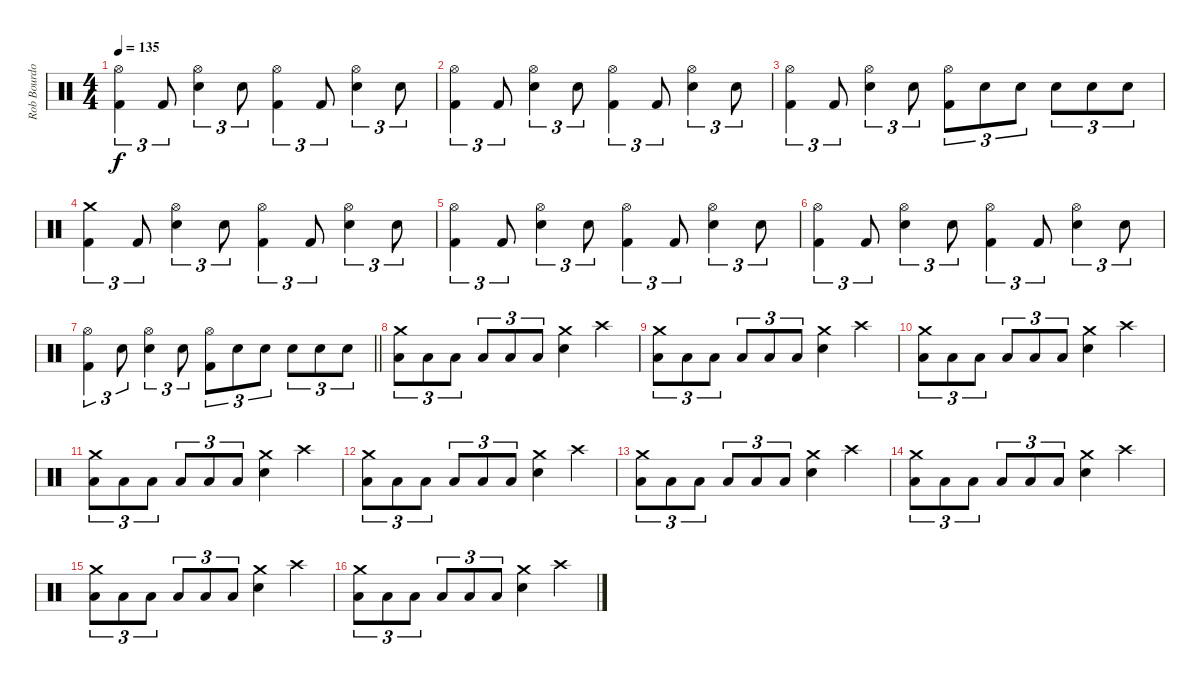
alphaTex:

\track ("Rob Bourdon [Drums]" "Rob Bourdo") {instrument percussion bank 5}
\staff {score}
\articulation defaults
\ts (4 4)
\tempo 135
\clef neutral
\ks c
("Hi-Hat (open)" "Kick (hit) 2").4{tu (3 2) dy f} "Kick (hit) 2".8{tu (3 2)} ("Hi-Hat (open)" "Electric Snare (hit)").4{tu (3 2)} "Electric Snare (hit)".8{tu (3 2)} ("Hi-Hat (open)" "Kick (hit) 2").4{tu (3 2)} "Kick (hit) 2".8{tu (3 2)} ("Hi-Hat (open)" "Electric Snare (hit)").4{tu (3 2)} "Electric Snare (hit)".8{tu (3 2)} |
("Hi-Hat (open)" "Kick (hit) 2").4{tu (3 2)} "Kick (hit) 2".8{tu (3 2)} ("Hi-Hat (open)" "Electric Snare (hit)").4{tu (3 2)} "Electric Snare (hit)".8{tu (3 2)} ("Hi-Hat (open)" "Kick (hit) 2").4{tu (3 2)} "Kick (hit) 2".8{tu (3 2)} ("Hi-Hat (open)" "Electric Snare (hit)").4{tu (3 2)} "Electric Snare (hit)".8{tu (3 2)} |
("Hi-Hat (open)" "Kick (hit) 2").4{tu (3 2)} "Kick (hit) 2".8{tu (3 2)} ("Hi-Hat (open)" "Electric Snare (hit)").4{tu (3 2)} "Electric Snare (hit)".8{tu (3 2)} ("Hi-Hat (open)" "Kick (hit) 2").8{tu (3 2)} "Electric Snare (hit)".8{tu (3 2)} "Electric Snare (hit)".8{tu (3 2)} "Electric Snare (hit)".8{tu (3 2)} "Electric Snare (hit)".8{tu (3 2)} "Electric Snare (hit)".8{tu (3 2)} |
("Crash medium (hit)" "Kick (hit) 2").4{tu (3 2)} "Kick (hit) 2".8{tu (3 2)} ("Hi-Hat (open)" "Electric Snare (hit)").4{tu (3 2)} "Electric Snare (hit)".8{tu (3 2)} ("Hi-Hat (open)" "Kick (hit) 2").4{tu (3 2)} "Kick (hit) 2".8{tu (3 2)} ("Hi-Hat (open)" "Electric Snare (hit)").4{tu (3 2)} "Electric Snare (hit)".8{tu (3 2)} |
("Hi-Hat (open)" "Kick (hit) 2").4{tu (3 2)} "Kick (hit) 2".8{tu (3 2)} ("Hi-Hat (open)" "Electric Snare (hit)").4{tu (3 2)} "Electric Snare (hit)".8{tu (3 2)} ("Hi-Hat (open)" "Kick (hit) 2").4{tu (3 2)} "Kick (hit) 2".8{tu (3 2)} ("Hi-Hat (open)" "Electric Snare (hit)").4{tu (3 2)} "Electric Snare (hit)".8{tu (3 2)} |
("Hi-Hat (open)" "Kick (hit) 2").4{tu (3 2)} "Kick (hit) 2".8{tu (3 2)} ("Hi-Hat (open)" "Electric Snare (hit)").4{tu (3 2)} "Electric Snare (hit)".8{tu (3 2)} ("Hi-Hat (open)" "Kick (hit) 2").4{tu (3 2)} "Kick (hit) 2".8{tu (3 2)} ("Hi-Hat (open)" "Electric Snare (hit)").4{tu (3 2)} "Electric Snare (hit)".8{tu (3 2)} |
\barLineRight lightlight
("Hi-Hat (open)" "Kick (hit) 2").4{tu (3 2)} "Electric Snare (hit)".8{tu (3 2)} ("Hi-Hat (open)" "Electric Snare (hit)").4{tu (3 2)} "Electric Snare (hit)".8{tu (3 2)} ("Hi-Hat (open)" "Kick (hit) 2").8{tu (3 2)} "Electric Snare (hit)".8{tu (3 2)} "Electric Snare (hit)".8{tu (3 2)} "Electric Snare (hit)".8{tu (3 2)} "Electric Snare (hit)".8{tu (3 2)} "Electric Snare (hit)".8{tu (3 2)} |
("Crash medium (hit)" "Low Tom (hit)").8{tu (3 2)} "Low Tom (hit)".8{tu (3 2)} "Low Tom (hit)".8{tu (3 2)} "Low Tom (hit)".8{tu (3 2)} "Low Tom (hit)".8{tu (3 2)} "Low Tom (hit)".8{tu (3 2)} ("Crash medium (hit)" "Electric Snare (hit)").4 "Crash high (hit)".4 |
("Crash medium (hit)" "Low Tom (hit)").8{tu (3 2)} "Low Tom (hit)".8{tu (3 2)} "Low Tom (hit)".8{tu (3 2)} "Low Tom (hit)".8{tu (3 2)} "Low Tom (hit)".8{tu (3 2)} "Low Tom (hit)".8{tu (3 2)} ("Crash medium (hit)" "Electric Snare (hit)").4 "Crash high (hit)".4 |
("Crash medium (hit)" "Low Tom (hit)").8{tu (3 2)} "Low Tom (hit)".8{tu (3 2)} "Low Tom (hit)".8{tu (3 2)} "Low Tom (hit)".8{tu (3 2)} "Low Tom (hit)".8{tu (3 2)} "Low Tom (hit)".8{tu (3 2)} ("Crash medium (hit)" "Electric Snare (hit)").4 "Crash high (hit)".4 |
("Crash medium (hit)" "Low Tom (hit)").8{tu (3 2)} "Low Tom (hit)".8{tu (3 2)} "Low Tom (hit)".8{tu (3 2)} "Low Tom (hit)".8{tu (3 2)} "Low Tom (hit)".8{tu (3 2)} "Low Tom (hit)".8{tu (3 2)} ("Crash medium (hit)" "Electric Snare (hit)").4 "Crash high (hit)".4 |
("Crash medium (hit)" "Low Tom (hit)").8{tu (3 2)} "Low Tom (hit)".8{tu (3 2)} "Low Tom (hit)".8{tu (3 2)} "Low Tom (hit)".8{tu (3 2)} "Low Tom (hit)".8{tu (3 2)} "Low Tom (hit)".8{tu (3 2)} ("Crash medium (hit)" "Electric Snare (hit)").4 "Crash high (hit)".4 |
("Crash medium (hit)" "Low Tom (hit)").8{tu (3 2)} "Low Tom (hit)".8{tu (3 2)} "Low Tom (hit)".8{tu (3 2)} "Low Tom (hit)".8{tu (3 2)} "Low Tom (hit)".8{tu (3 2)} "Low Tom (hit)".8{tu (3 2)} ("Crash medium (hit)" "Electric Snare (hit)").4 "Crash high (hit)".4 |
("Crash medium (hit)" "Low Tom (hit)").8{tu (3 2)} "Low Tom (hit)".8{tu (3 2)} "Low Tom (hit)".8{tu (3 2)} "Low Tom (hit)".8{tu (3 2)} "Low Tom (hit)".8{tu (3 2)} "Low Tom (hit)".8{tu (3 2)} ("Crash medium (hit)" "Electric Snare (hit)").4 "Crash high (hit)".4 |
("Crash medium (hit)" "Low Tom (hit)").8{tu (3 2)} "Low Tom (hit)".8{tu (3 2)} "Low Tom (hit)".8{tu (3 2)} "Low Tom (hit)".8{tu (3 2)} "Low Tom (hit)".8{tu (3 2)} "Low Tom (hit)".8{tu (3 2)} ("Crash medium (hit)" "Electric Snare (hit)").4 "Crash high (hit)".4 |
("Crash medium (hit)" "Low Tom (hit)").8{tu (3 2)} "Low Tom (hit)".8{tu (3 2)} "Low Tom (hit)".8{tu (3 2)} "Low Tom (hit)".8{tu (3 2)} "Low Tom (hit)".8{tu (3 2)} "Low Tom (hit)".8{tu (3 2)} ("Crash medium (hit)" "Electric Snare (hit)").4 "Crash high (hit)".4
